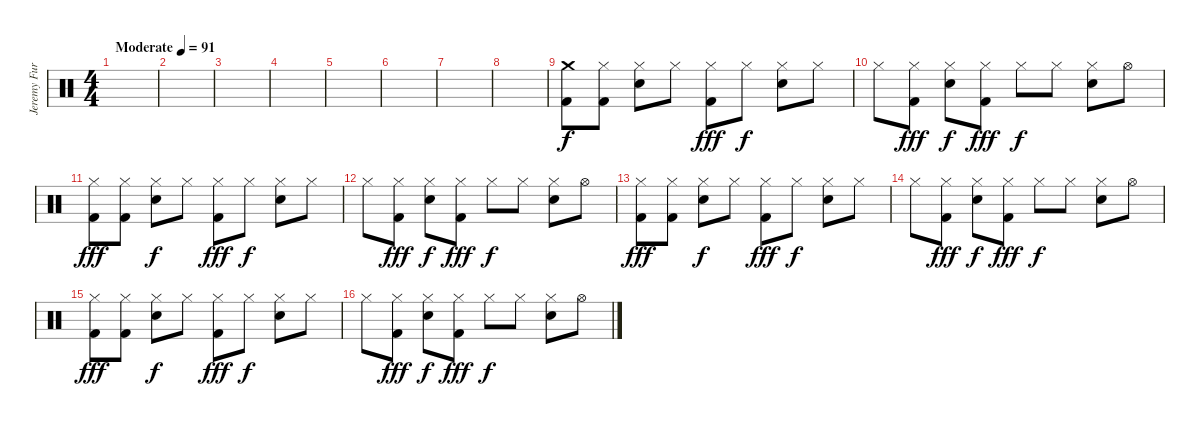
\track ("Jeremy Furstenfeld - drums" "Jeremy Fur") {instrument percussion}
\staff {score}
\articulation defaults
\ts (4 4)
\tempo (91 "Moderate")
\clef neutral
\ks c
|
|
|
|
|
|
|
|
("Crash medium (hit)" "Kick (hit) 2").8 ("Hi-Hat (closed)" "Kick (hit) 2").8 ("Hi-Hat (closed)" "Electric Snare (hit)").8{dy f} "Hi-Hat (closed)".8 ("Hi-Hat (closed)" "Kick (hit) 2").8{dy fff} "Hi-Hat (closed)".8{dy f} ("Hi-Hat (closed)" "Electric Snare (hit)").8 "Hi-Hat (closed)".8 |
"Hi-Hat (closed)".8 ("Hi-Hat (closed)" "Kick (hit) 2").8{dy fff} ("Hi-Hat (closed)" "Electric Snare (hit)").8{dy f} ("Hi-Hat (closed)" "Kick (hit) 2").8{dy fff} "Hi-Hat (closed)".8{dy f} "Hi-Hat (closed)".8 ("Hi-Hat (closed)" "Electric Snare (hit)").8 "Hi-Hat (open)".8 |
("Hi-Hat (closed)" "Kick (hit) 2").8{dy fff} ("Hi-Hat (closed)" "Kick (hit) 2").8 ("Hi-Hat (closed)" "Electric Snare (hit)").8{dy f} "Hi-Hat (closed)".8 ("Hi-Hat (closed)" "Kick (hit) 2").8{dy fff} "Hi-Hat (closed)".8{dy f} ("Hi-Hat (closed)" "Electric Snare (hit)").8 "Hi-Hat (closed)".8 |
"Hi-Hat (closed)".8 ("Hi-Hat (closed)" "Kick (hit) 2").8{dy fff} ("Hi-Hat (closed)" "Electric Snare (hit)").8{dy f} ("Hi-Hat (closed)" "Kick (hit) 2").8{dy fff} "Hi-Hat (closed)".8{dy f} "Hi-Hat (closed)".8 ("Hi-Hat (closed)" "Electric Snare (hit)").8 "Hi-Hat (open)".8 |
("Hi-Hat (closed)" "Kick (hit) 2").8{dy fff} ("Hi-Hat (closed)" "Kick (hit) 2").8 ("Hi-Hat (closed)" "Electric Snare (hit)").8{dy f} "Hi-Hat (closed)".8 ("Hi-Hat (closed)" "Kick (hit) 2").8{dy fff} "Hi-Hat (closed)".8{dy f} ("Hi-Hat (closed)" "Electric Snare (hit)").8 "Hi-Hat (closed)".8 |
"Hi-Hat (closed)".8 ("Hi-Hat (closed)" "Kick (hit) 2").8{dy fff} ("Hi-Hat (closed)" "Electric Snare (hit)").8{dy f} ("Hi-Hat (closed)" "Kick (hit) 2").8{dy fff} "Hi-Hat (closed)".8{dy f} "Hi-Hat (closed)".8 ("Hi-Hat (closed)" "Electric Snare (hit)").8 "Hi-Hat (open)".8 |
("Hi-Hat (closed)" "Kick (hit) 2").8{dy fff} ("Hi-Hat (closed)" "Kick (hit) 2").8 ("Hi-Hat (closed)" "Electric Snare (hit)").8{dy f} "Hi-Hat (closed)".8 ("Hi-Hat (closed)" "Kick (hit) 2").8{dy fff} "Hi-Hat (closed)".8{dy f} ("Hi-Hat (closed)" "Electric Snare (hit)").8 "Hi-Hat (closed)".8 |
"Hi-Hat (closed)".8 ("Hi-Hat (closed)" "Kick (hit) 2").8{dy fff} ("Hi-Hat (closed)" "Electric Snare (hit)").8{dy f} ("Hi-Hat (closed)" "Kick (hit) 2").8{dy fff} "Hi-Hat (closed)".8{dy f} "Hi-Hat (closed)".8 ("Hi-Hat (closed)" "Electric Snare (hit)").8 "Hi-Hat (open)".8
